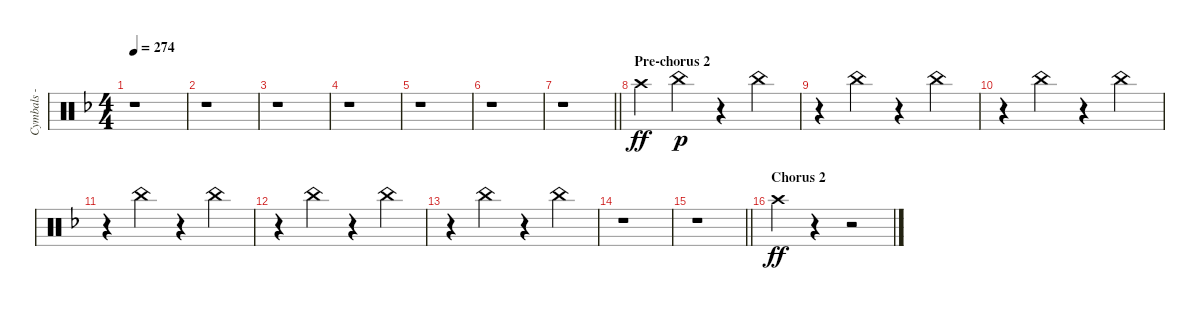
\track ("Cymbals - crash" "Cymbals - ") {instrument percussion}
\staff {score}
\articulation defaults
\ts (4 4)
\tempo 274
\clef neutral
\ks dminor
r.1{dy ff} |
r.1 |
r.1 |
r.1 |
r.1 |
r.1 |
\barLineRight lightlight
r.1 |
\section ("" "Pre-chorus 2")
"Crash high (hit)".4 "China (hit)".4{dy p volume 2} r.4 "China (hit)".4 |
r.4 "China (hit)".4 r.4 "China (hit)".4 |
r.4 "China (hit)".4 r.4 "China (hit)".4 |
r.4 "China (hit)".4 r.4 "China (hit)".4 |
r.4 "China (hit)".4 r.4 "China (hit)".4 |
r.4 "China (hit)".4 r.4 "China (hit)".4 |
r.1 |
\barLineRight lightlight
r.1 |
\section ("" "Chorus 2")
"Crash high (hit)".4{dy ff volume 3} r.4 r.2
